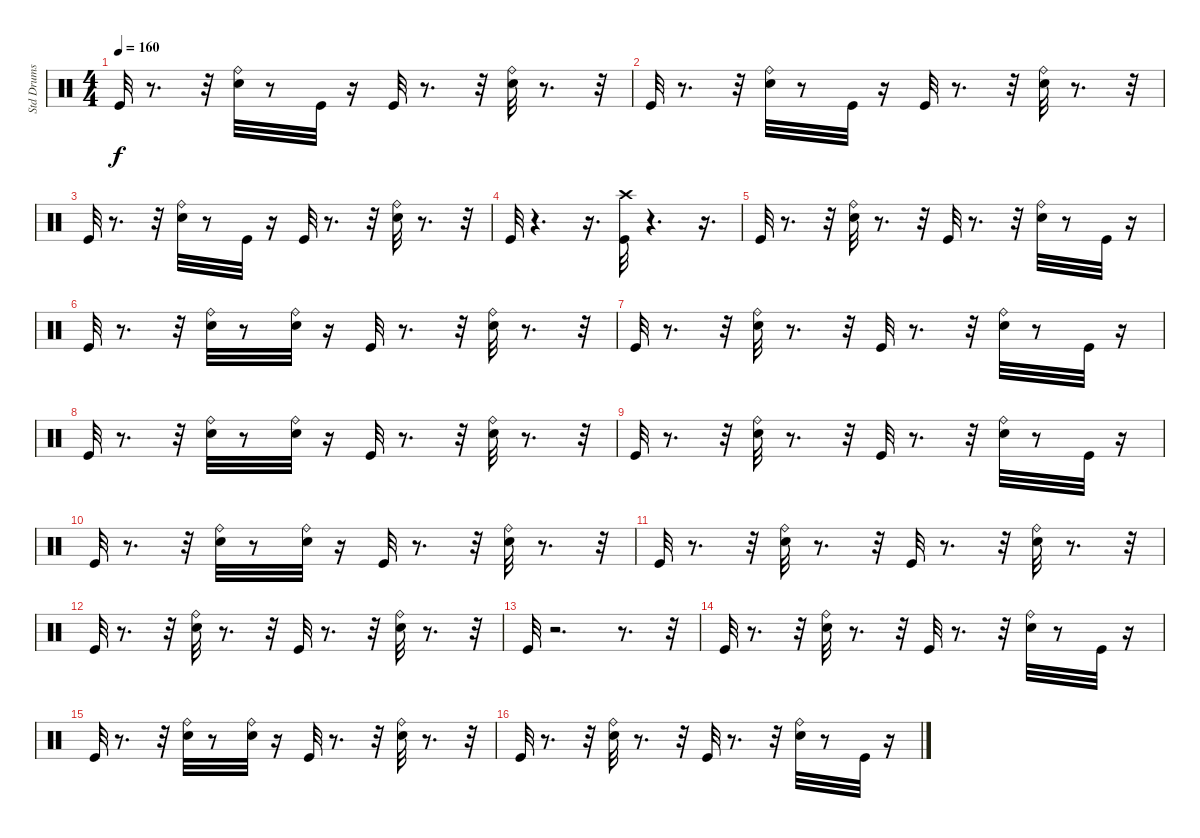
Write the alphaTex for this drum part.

\track ("Std Drums" "Std Drums") {instrument percussion}
\staff {score}
\articulation defaults
\ts (4 4)
\tempo 160
\clef neutral
\ks c "Kick (hit)".32{dy f}
r.8{d} r.32 ("Snare (hit) 2" "Ride (bell)").32 r.8 "Kick (hit)".32 r.16 "Kick (hit)".32 r.8{d} r.32 ("Ride (bell)" "Snare (hit) 2").32 r.8{d} r.32 |
"Kick (hit)".32 r.8{d} r.32 ("Snare (hit) 2" "Ride (bell)").32 r.8 "Kick (hit)".32 r.16 "Kick (hit)".32 r.8{d} r.32 ("Snare (hit) 2" "Ride (bell)").32 r.8{d} r.32 |
"Kick (hit)".32 r.8{d} r.32 ("Ride (bell)" "Snare (hit) 2").32 r.8 "Kick (hit)".32 r.16 "Kick (hit)".32 r.8{d} r.32 ("Ride (bell)" "Snare (hit) 2").32 r.8{d} r.32 |
"Kick (hit)".32 r.4{d} r.16{d} ("Kick (hit)" "Crash high (hit)").32 r.4{d} r.16{d} |
"Kick (hit)".32 r.8{d} r.32 ("Ride (bell)" "Snare (hit) 2").32 r.8{d} r.32 "Kick (hit)".32 r.8{d} r.32 ("Snare (hit) 2" "Ride (bell)").32 r.8 "Kick (hit)".32 r.16 |
"Kick (hit)".32 r.8{d} r.32 ("Snare (hit) 2" "Ride (bell)").32 r.8 ("Ride (bell)" "Snare (hit) 2").32 r.16 "Kick (hit)".32 r.8{d} r.32 ("Snare (hit) 2" "Ride (bell)").32 r.8{d} r.32 |
"Kick (hit)".32 r.8{d} r.32 ("Ride (bell)" "Snare (hit) 2").32 r.8{d} r.32 "Kick (hit)".32 r.8{d} r.32 ("Snare (hit) 2" "Ride (bell)").32 r.8 "Kick (hit)".32 r.16 |
"Kick (hit)".32 r.8{d} r.32 ("Snare (hit) 2" "Ride (bell)").32 r.8 ("Snare (hit) 2" "Ride (bell)").32 r.16 "Kick (hit)".32 r.8{d} r.32 ("Ride (bell)" "Snare (hit) 2").32 r.8{d} r.32 |
"Kick (hit)".32 r.8{d} r.32 ("Snare (hit) 2" "Ride (bell)").32 r.8{d} r.32 "Kick (hit)".32 r.8{d} r.32 ("Snare (hit) 2" "Ride (bell)").32 r.8 "Kick (hit)".32 r.16 |
"Kick (hit)".32 r.8{d} r.32 ("Snare (hit) 2" "Ride (bell)").32 r.8 ("Ride (bell)" "Snare (hit) 2").32 r.16 "Kick (hit)".32 r.8{d} r.32 ("Snare (hit) 2" "Ride (bell)").32 r.8{d} r.32 |
"Kick (hit)".32 r.8{d} r.32 ("Snare (hit) 2" "Ride (bell)").32 r.8{d} r.32 "Kick (hit)".32 r.8{d} r.32 ("Ride (bell)" "Snare (hit) 2").32 r.8{d} r.32 |
"Kick (hit)".32 r.8{d} r.32 ("Snare (hit) 2" "Ride (bell)").32 r.8{d} r.32 "Kick (hit)".32 r.8{d} r.32 ("Snare (hit) 2" "Ride (bell)").32 r.8{d} r.32 |
"Kick (hit)".32 r.2{d} r.8{d} r.32 |
"Kick (hit)".32 r.8{d} r.32 ("Snare (hit) 2" "Ride (bell)").32 r.8{d} r.32 "Kick (hit)".32 r.8{d} r.32 ("Ride (bell)" "Snare (hit) 2").32 r.8 "Kick (hit)".32 r.16 |
"Kick (hit)".32 r.8{d} r.32 ("Snare (hit) 2" "Ride (bell)").32 r.8 ("Snare (hit) 2" "Ride (bell)").32 r.16 "Kick (hit)".32 r.8{d} r.32 ("Ride (bell)" "Snare (hit) 2").32 r.8{d} r.32 |
"Kick (hit)".32 r.8{d} r.32 ("Snare (hit) 2" "Ride (bell)").32 r.8{d} r.32 "Kick (hit)".32 r.8{d} r.32 ("Ride (bell)" "Snare (hit) 2").32 r.8 "Kick (hit)".32 r.16
